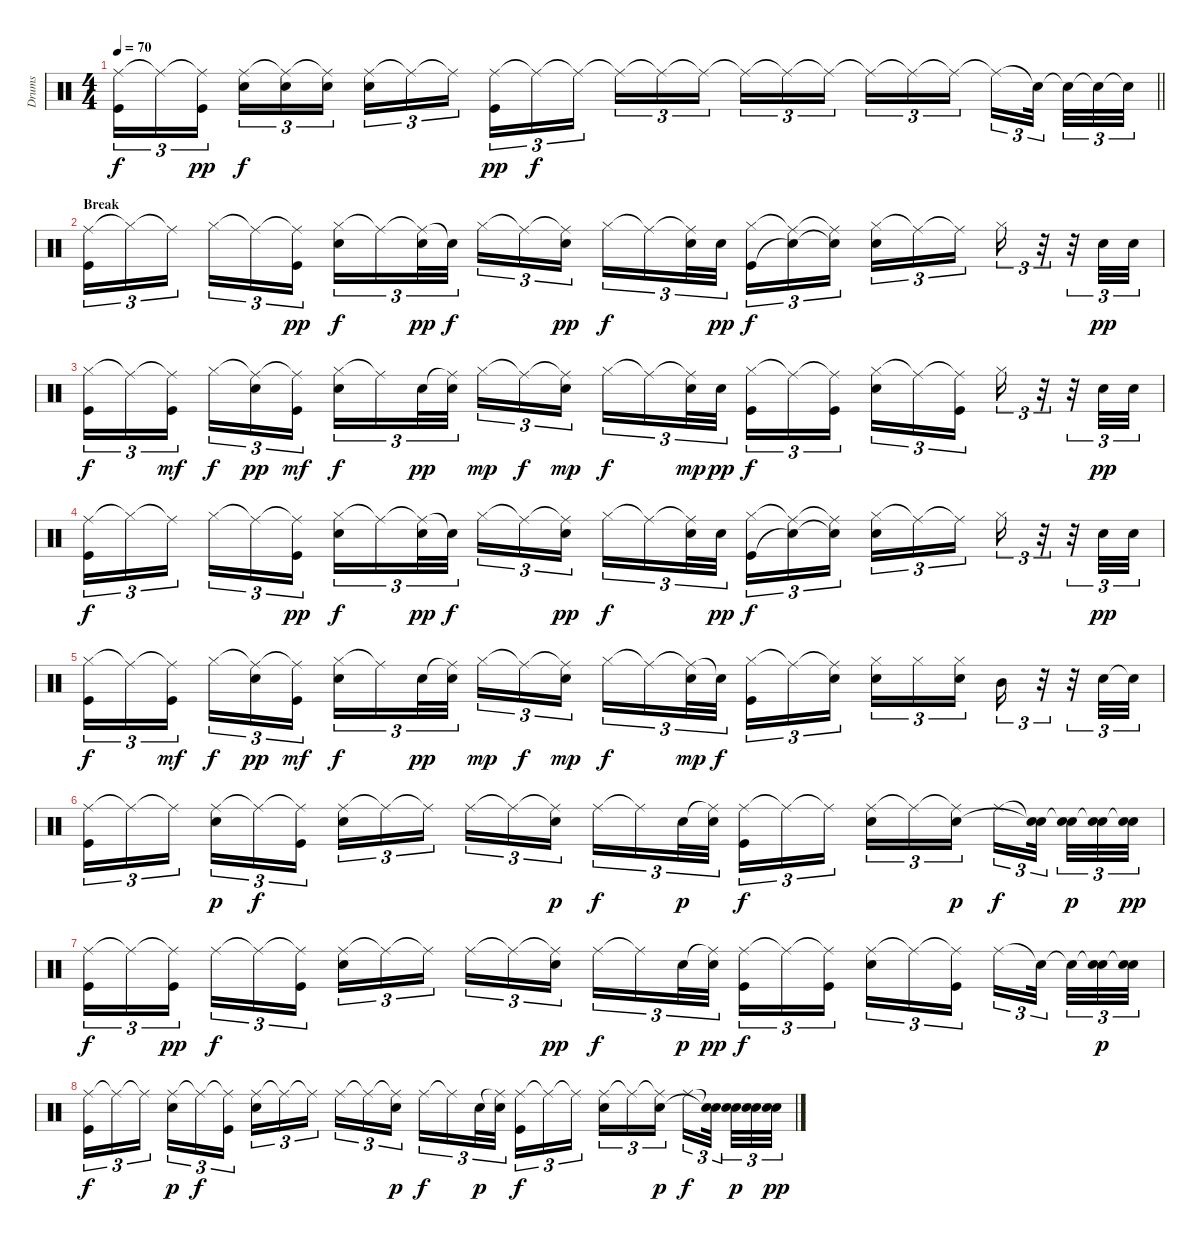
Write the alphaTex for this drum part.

\track ("Drums" "Drums") {instrument percussion}
\staff {score}
\articulation defaults
\ts (4 4)
\tempo 70
\clef neutral
\barLineRight lightlight
\ks c
("Ride (middle)" "Kick (hit)").16{tu (3 2) dy f} "Ride (middle)"{t}.16{tu (3 2)} ("Ride (middle)"{t} "Kick (hit)").16{tu (3 2) dy pp} ("Ride (middle)" "Electric Snare (hit)").16{tu (3 2) dy f} ("Ride (middle)"{t} "Electric Snare (hit)").16{tu (3 2)} ("Ride (middle)"{t} "Electric Snare (hit)").16{tu (3 2)} ("Ride (middle)" "Electric Snare (hit)").16{tu (3 2)} "Ride (middle)"{t}.16{tu (3 2)} "Ride (middle)"{t}.16{tu (3 2)} ("Ride (middle)" "Kick (hit)").16{tu (3 2) dy pp} "Ride (middle)"{t}.16{tu (3 2) dy f} "Ride (middle)"{t}.16{tu (3 2)} "Ride (middle)"{t}.16{tu (3 2)} "Ride (middle)"{t}.16{tu (3 2)} "Ride (middle)"{t}.16{tu (3 2)} "Ride (middle)"{t}.16{tu (3 2)} "Ride (middle)"{t}.16{tu (3 2)} "Ride (middle)"{t}.16{tu (3 2)} "Ride (middle)"{t}.16{tu (3 2)} "Ride (middle)"{t}.16{tu (3 2)} "Ride (middle)"{t}.16{tu (3 2)} "Ride (middle)"{t}.16{tu (3 2)} "Snare (hit)"{t}.32{tu (3 2)} "Snare (hit)"{t}.32{tu (3 2)} "Snare (hit)"{t}.32{tu (3 2)} "Snare (hit)"{t}.32{tu (3 2)} |
\section ("" "Break")
("Ride (middle)" "Kick (hit)").16{tu (3 2)} "Hi-Hat (closed)"{t}.16{tu (3 2)} "Ride (middle)"{t}.16{tu (3 2)} "Hi-Hat (closed)".16{tu (3 2)} "Ride (middle)"{t}.16{tu (3 2)} ("Ride (middle)"{t} "Kick (hit)").16{tu (3 2) dy pp} ("Hi-Hat (closed)" "Electric Snare (hit)").16{tu (3 2) dy f} "Ride (middle)"{t}.16{tu (3 2)} ("Ride (middle)"{t} "Electric Snare (hit)").32{tu (3 2) dy pp} "Electric Snare (hit)"{t}.32{tu (3 2) dy f} "Hi-Hat (closed)".16{tu (3 2)} "Ride (middle)"{t}.16{tu (3 2)} ("Ride (middle)"{t} "Electric Snare (hit)").16{tu (3 2) dy pp} "Hi-Hat (closed)".16{tu (3 2) dy f} "Ride (middle)"{t}.16{tu (3 2)} ("Ride (middle)"{t} "Electric Snare (hit)").32{tu (3 2)} "Electric Snare (hit)".32{tu (3 2) dy pp} ("Hi-Hat (closed)" "Kick (hit)").16{tu (3 2) dy f} ("Ride (middle)"{t} "Electric Snare (hit)"{t}).16{tu (3 2)} ("Ride (middle)"{t} "Electric Snare (hit)"{t}).16{tu (3 2)} ("Hi-Hat (closed)" "Electric Snare (hit)").16{tu (3 2)} "Ride (middle)"{t}.16{tu (3 2)} "Ride (middle)"{t}.16{tu (3 2)} "Hi-Hat (closed)".16{tu (3 2)} r.32{tu (3 2)} r.32{tu (3 2)} "Electric Snare (hit)".32{tu (3 2) dy pp} "Electric Snare (hit)".32{tu (3 2)} |
("Hi-Hat (closed)" "Kick (hit)").16{tu (3 2) dy f} "Ride (middle)"{t}.16{tu (3 2)} ("Ride (middle)"{t} "Kick (hit)").16{tu (3 2) dy mf} "Hi-Hat (closed)".16{tu (3 2) dy f} ("Ride (middle)"{t} "Electric Snare (hit)").16{tu (3 2) dy pp} ("Ride (middle)"{t} "Kick (hit)").16{tu (3 2) dy mf} ("Hi-Hat (closed)" "Electric Snare (hit)").16{tu (3 2) dy f} "Ride (middle)"{t}.16{tu (3 2)} "Electric Snare (hit)".32{tu (3 2) dy pp} ("Ride (middle)"{t} "Electric Snare (hit)").32{tu (3 2)} "Hi-Hat (closed)".16{tu (3 2) dy mp} "Ride (middle)"{t}.16{tu (3 2) dy f} ("Ride (middle)"{t} "Electric Snare (hit)").16{tu (3 2) dy mp} "Hi-Hat (closed)".16{tu (3 2) dy f} "Ride (middle)"{t}.16{tu (3 2)} ("Ride (middle)"{t} "Electric Snare (hit)").32{tu (3 2) dy mp} "Electric Snare (hit)".32{tu (3 2) dy pp} ("Hi-Hat (closed)" "Kick (hit)").16{tu (3 2) dy f} "Ride (middle)"{t}.16{tu (3 2)} ("Ride (middle)"{t} "Kick (hit)").16{tu (3 2)} ("Hi-Hat (closed)" "Electric Snare (hit)").16{tu (3 2)} "Ride (middle)"{t}.16{tu (3 2)} ("Ride (middle)"{t} "Kick (hit)").16{tu (3 2)} "Hi-Hat (closed)".16{tu (3 2)} r.32{tu (3 2)} r.32{tu (3 2)} "Electric Snare (hit)".32{tu (3 2) dy pp} "Electric Snare (hit)".32{tu (3 2)} |
("Ride (middle)" "Kick (hit)").16{tu (3 2) dy f} "Hi-Hat (closed)"{t}.16{tu (3 2)} "Ride (middle)"{t}.16{tu (3 2)} "Hi-Hat (closed)".16{tu (3 2)} "Ride (middle)"{t}.16{tu (3 2)} ("Ride (middle)"{t} "Kick (hit)").16{tu (3 2) dy pp} ("Hi-Hat (closed)" "Electric Snare (hit)").16{tu (3 2) dy f} "Ride (middle)"{t}.16{tu (3 2)} ("Ride (middle)"{t} "Electric Snare (hit)").32{tu (3 2) dy pp} "Electric Snare (hit)"{t}.32{tu (3 2) dy f} "Hi-Hat (closed)".16{tu (3 2)} "Ride (middle)"{t}.16{tu (3 2)} ("Ride (middle)"{t} "Electric Snare (hit)").16{tu (3 2) dy pp} "Hi-Hat (closed)".16{tu (3 2) dy f} "Ride (middle)"{t}.16{tu (3 2)} ("Ride (middle)"{t} "Electric Snare (hit)").32{tu (3 2)} "Electric Snare (hit)".32{tu (3 2) dy pp} ("Hi-Hat (closed)" "Kick (hit)").16{tu (3 2) dy f} ("Ride (middle)"{t} "Electric Snare (hit)"{t}).16{tu (3 2)} ("Ride (middle)"{t} "Electric Snare (hit)"{t}).16{tu (3 2)} ("Hi-Hat (closed)" "Electric Snare (hit)").16{tu (3 2)} "Ride (middle)"{t}.16{tu (3 2)} "Ride (middle)"{t}.16{tu (3 2)} "Hi-Hat (closed)".16{tu (3 2)} r.32{tu (3 2)} r.32{tu (3 2)} "Electric Snare (hit)".32{tu (3 2) dy pp} "Electric Snare (hit)".32{tu (3 2)} |
("Hi-Hat (closed)" "Kick (hit)").16{tu (3 2) dy f} "Ride (middle)"{t}.16{tu (3 2)} ("Ride (middle)"{t} "Kick (hit)").16{tu (3 2) dy mf} "Hi-Hat (closed)".16{tu (3 2) dy f} ("Ride (middle)"{t} "Electric Snare (hit)").16{tu (3 2) dy pp} ("Ride (middle)"{t} "Kick (hit)").16{tu (3 2) dy mf} ("Hi-Hat (closed)" "Electric Snare (hit)").16{tu (3 2) dy f} "Ride (middle)"{t}.16{tu (3 2)} "Electric Snare (hit)".32{tu (3 2) dy pp} ("Ride (middle)"{t} "Electric Snare (hit)").32{tu (3 2)} "Hi-Hat (closed)".16{tu (3 2) dy mp} "Ride (middle)"{t}.16{tu (3 2) dy f} ("Ride (middle)"{t} "Electric Snare (hit)").16{tu (3 2) dy mp} "Hi-Hat (closed)".16{tu (3 2) dy f} "Ride (middle)"{t}.16{tu (3 2)} ("Ride (middle)"{t} "Electric Snare (hit)").32{tu (3 2) dy mp} "Electric Snare (hit)"{t}.32{tu (3 2) dy f} ("Hi-Hat (closed)" "Kick (hit)").16{tu (3 2)} "Ride (middle)"{t}.16{tu (3 2)} ("Ride (middle)"{t} "Electric Snare (hit)").16{tu (3 2)} ("Hi-Hat (closed)" "Electric Snare (hit)").16{tu (3 2)} "Hi-Hat (closed)".16{tu (3 2)} ("Hi-Hat (closed)" "Electric Snare (hit)").16{tu (3 2)} "Mid Tom (hit)".16{tu (3 2)} r.32{tu (3 2)} r.32{tu (3 2)} "Electric Snare (hit)".32{tu (3 2)} "Electric Snare (hit)"{t}.32{tu (3 2)} |
("Ride (middle)" "Kick (hit)").16{tu (3 2)} "Ride (middle)"{t}.16{tu (3 2)} "Ride (middle)"{t}.16{tu (3 2)} ("Ride (middle)" "Electric Snare (hit)").16{tu (3 2) dy p} "Ride (middle)"{t}.16{tu (3 2) dy f} ("Ride (middle)"{t} "Kick (hit)").16{tu (3 2)} ("Ride (middle)" "Electric Snare (hit)").16{tu (3 2)} "Ride (middle)"{t}.16{tu (3 2)} "Ride (middle)"{t}.16{tu (3 2)} "Ride (middle)".16{tu (3 2)} "Ride (middle)"{t}.16{tu (3 2)} ("Ride (middle)"{t} "Electric Snare (hit)").16{tu (3 2) dy p} "Ride (middle)".16{tu (3 2) dy f} "Ride (middle)"{t}.16{tu (3 2)} "Electric Snare (hit)".32{tu (3 2) dy p} ("Ride (middle)"{t} "Electric Snare (hit)").32{tu (3 2)} ("Ride (middle)" "Kick (hit)").16{tu (3 2) dy f} "Ride (middle)"{t}.16{tu (3 2)} "Ride (middle)"{t}.16{tu (3 2)} ("Ride (middle)" "Electric Snare (hit)").16{tu (3 2)} "Ride (middle)"{t}.16{tu (3 2)} ("Ride (middle)"{t} "Electric Snare (hit)").16{tu (3 2) dy p} "Ride (middle)".16{tu (3 2) dy f} ("Snare (hit)"{t} "Electric Snare (hit)"{t}).32{tu (3 2)} ("Snare (hit)"{t} "Electric Snare (hit)").32{tu (3 2) dy p} ("Snare (hit)"{t} "Electric Snare (hit)").32{tu (3 2)} ("Snare (hit)"{t} "Electric Snare (hit)").32{tu (3 2) dy pp} |
("Ride (middle)" "Kick (hit)").16{tu (3 2) dy f} "Ride (middle)"{t}.16{tu (3 2)} ("Ride (middle)"{t} "Kick (hit)").16{tu (3 2) dy pp} "Ride (middle)".16{tu (3 2) dy f} "Ride (middle)"{t}.16{tu (3 2)} ("Ride (middle)"{t} "Kick (hit)").16{tu (3 2)} ("Ride (middle)" "Electric Snare (hit)").16{tu (3 2)} "Ride (middle)"{t}.16{tu (3 2)} "Ride (middle)"{t}.16{tu (3 2)} "Ride (middle)".16{tu (3 2)} "Ride (middle)"{t}.16{tu (3 2)} ("Ride (middle)"{t} "Electric Snare (hit)").16{tu (3 2) dy pp} "Ride (middle)".16{tu (3 2) dy f} "Ride (middle)"{t}.16{tu (3 2)} "Electric Snare (hit)".32{tu (3 2) dy p} ("Ride (middle)"{t} "Electric Snare (hit)").32{tu (3 2) dy pp} ("Ride (middle)" "Kick (hit)").16{tu (3 2) dy f} "Ride (middle)"{t}.16{tu (3 2)} ("Ride (middle)"{t} "Kick (hit)").16{tu (3 2)} ("Ride (middle)" "Electric Snare (hit)").16{tu (3 2)} "Ride (middle)"{t}.16{tu (3 2)} ("Ride (middle)"{t} "Kick (hit)").16{tu (3 2)} "Ride (middle)".16{tu (3 2)} "Snare (hit)"{t}.32{tu (3 2)} "Snare (hit)"{t}.32{tu (3 2)} ("Snare (hit)"{t} "Electric Snare (hit)").32{tu (3 2) dy p} ("Snare (hit)"{t} "Electric Snare (hit)").32{tu (3 2)} |
("Ride (middle)" "Kick (hit)").16{tu (3 2) dy f} "Ride (middle)"{t}.16{tu (3 2)} "Ride (middle)"{t}.16{tu (3 2)} ("Ride (middle)" "Electric Snare (hit)").16{tu (3 2) dy p} "Ride (middle)"{t}.16{tu (3 2) dy f} ("Ride (middle)"{t} "Kick (hit)").16{tu (3 2)} ("Ride (middle)" "Electric Snare (hit)").16{tu (3 2)} "Ride (middle)"{t}.16{tu (3 2)} "Ride (middle)"{t}.16{tu (3 2)} "Ride (middle)".16{tu (3 2)} "Ride (middle)"{t}.16{tu (3 2)} ("Ride (middle)"{t} "Electric Snare (hit)").16{tu (3 2) dy p} "Ride (middle)".16{tu (3 2) dy f} "Ride (middle)"{t}.16{tu (3 2)} "Electric Snare (hit)".32{tu (3 2) dy p} ("Ride (middle)"{t} "Electric Snare (hit)").32{tu (3 2)} ("Ride (middle)" "Kick (hit)").16{tu (3 2) dy f} "Ride (middle)"{t}.16{tu (3 2)} "Ride (middle)"{t}.16{tu (3 2)} ("Ride (middle)" "Electric Snare (hit)").16{tu (3 2)} "Ride (middle)"{t}.16{tu (3 2)} ("Ride (middle)"{t} "Electric Snare (hit)").16{tu (3 2) dy p} "Ride (middle)".16{tu (3 2) dy f} ("Snare (hit)"{t} "Electric Snare (hit)"{t}).32{tu (3 2)} ("Snare (hit)"{t} "Electric Snare (hit)").32{tu (3 2) dy p} ("Snare (hit)"{t} "Electric Snare (hit)").32{tu (3 2)} ("Snare (hit)"{t} "Electric Snare (hit)").32{tu (3 2) dy pp}
